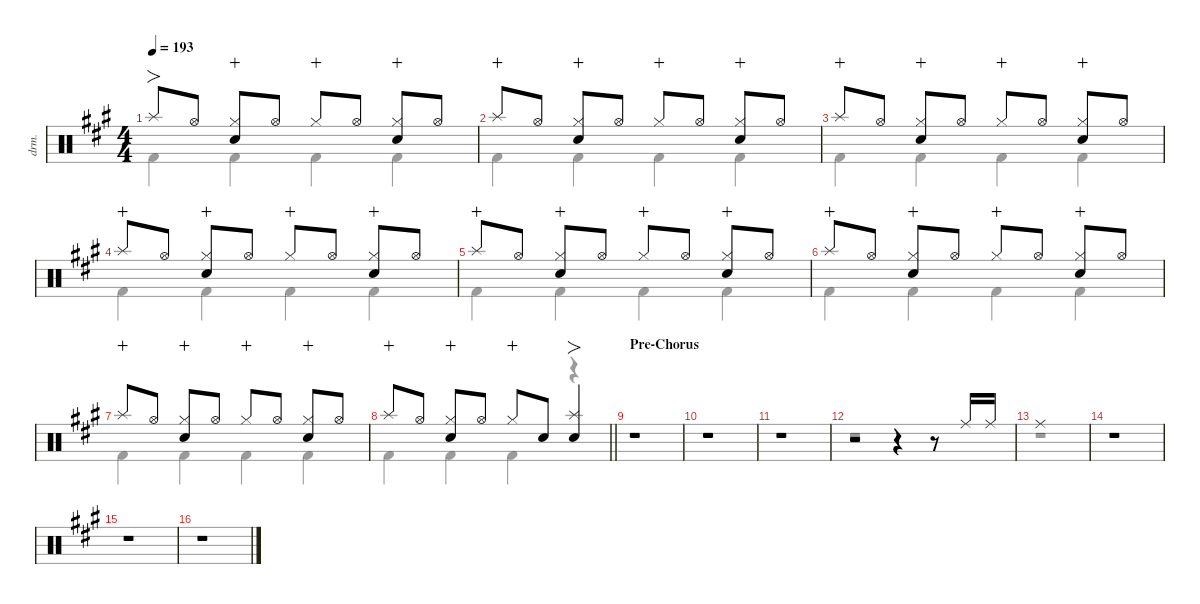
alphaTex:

\defaultSystemsLayout 4
\hideDynamics
\bracketExtendMode nobrackets
\otherSystemsTrackNameOrientation horizontal
\track ("伊地知虹夏" "drm.") {instrument percussion}
\staff {score}
\articulation defaults
\voice
\ts (4 4)
\tempo 193
\clef neutral
\ks a "Splash (hit)"{acc forcenatural}.8{fo dy mf beam Up} "Hi-Hat (open)"{acc forcenatural}.8{beam Up}
("Hi-Hat (closed)"{acc forcenatural} "Snare (hit) 2"{acc forcenatural}).8{wahc beam Up} "Hi-Hat (open)"{acc forcenatural}.8{beam Up} "Hi-Hat (closed)"{acc forcenatural}.8{wahc beam Up} "Hi-Hat (open)"{acc forcenatural}.8{beam Up} ("Hi-Hat (closed)"{acc forcenatural} "Snare (hit) 2"{acc forcenatural}).8{wahc beam Up} "Hi-Hat (open)"{acc forcenatural}.8{beam Up} |
"Splash (hit)"{acc forcenatural}.8{wahc beam Up} "Hi-Hat (open)"{acc forcenatural}.8{beam Up} ("Hi-Hat (closed)"{acc forcenatural} "Snare (hit) 2"{acc forcenatural}).8{wahc beam Up} "Hi-Hat (open)"{acc forcenatural}.8{beam Up} "Hi-Hat (closed)"{acc forcenatural}.8{wahc beam Up} "Hi-Hat (open)"{acc forcenatural}.8{beam Up} ("Hi-Hat (closed)"{acc forcenatural} "Snare (hit) 2"{acc forcenatural}).8{wahc beam Up} "Hi-Hat (open)"{acc forcenatural}.8{beam Up} |
"Splash (hit)"{acc forcenatural}.8{wahc beam Up} "Hi-Hat (open)"{acc forcenatural}.8{beam Up} ("Hi-Hat (closed)"{acc forcenatural} "Snare (hit) 2"{acc forcenatural}).8{wahc beam Up} "Hi-Hat (open)"{acc forcenatural}.8{beam Up} "Hi-Hat (closed)"{acc forcenatural}.8{wahc beam Up} "Hi-Hat (open)"{acc forcenatural}.8{beam Up} ("Hi-Hat (closed)"{acc forcenatural} "Snare (hit) 2"{acc forcenatural}).8{wahc beam Up} "Hi-Hat (open)"{acc forcenatural}.8{beam Up} |
"Splash (hit)"{acc forcenatural}.8{wahc beam Up} "Hi-Hat (open)"{acc forcenatural}.8{beam Up} ("Hi-Hat (closed)"{acc forcenatural} "Snare (hit) 2"{acc forcenatural}).8{wahc beam Up} "Hi-Hat (open)"{acc forcenatural}.8{beam Up} "Hi-Hat (closed)"{acc forcenatural}.8{wahc beam Up} "Hi-Hat (open)"{acc forcenatural}.8{beam Up} ("Hi-Hat (closed)"{acc forcenatural} "Snare (hit) 2"{acc forcenatural}).8{wahc beam Up} "Hi-Hat (open)"{acc forcenatural}.8{beam Up} |
"Splash (hit)"{acc forcenatural}.8{wahc beam Up} "Hi-Hat (open)"{acc forcenatural}.8{beam Up} ("Hi-Hat (closed)"{acc forcenatural} "Snare (hit) 2"{acc forcenatural}).8{wahc beam Up} "Hi-Hat (open)"{acc forcenatural}.8{beam Up} "Hi-Hat (closed)"{acc forcenatural}.8{wahc beam Up} "Hi-Hat (open)"{acc forcenatural}.8{beam Up} ("Hi-Hat (closed)"{acc forcenatural} "Snare (hit) 2"{acc forcenatural}).8{wahc beam Up} "Hi-Hat (open)"{acc forcenatural}.8{beam Up} |
"Splash (hit)"{acc forcenatural}.8{wahc beam Up} "Hi-Hat (open)"{acc forcenatural}.8{beam Up} ("Hi-Hat (closed)"{acc forcenatural} "Snare (hit) 2"{acc forcenatural}).8{wahc beam Up} "Hi-Hat (open)"{acc forcenatural}.8{beam Up} "Hi-Hat (closed)"{acc forcenatural}.8{wahc beam Up} "Hi-Hat (open)"{acc forcenatural}.8{beam Up} ("Hi-Hat (closed)"{acc forcenatural} "Snare (hit) 2"{acc forcenatural}).8{wahc beam Up} "Hi-Hat (open)"{acc forcenatural}.8{beam Up} |
"Splash (hit)"{acc forcenatural}.8{wahc beam Up} "Hi-Hat (open)"{acc forcenatural}.8{beam Up} ("Hi-Hat (closed)"{acc forcenatural} "Snare (hit) 2"{acc forcenatural}).8{wahc beam Up} "Hi-Hat (open)"{acc forcenatural}.8{beam Up} "Hi-Hat (closed)"{acc forcenatural}.8{wahc beam Up} "Hi-Hat (open)"{acc forcenatural}.8{beam Up} ("Hi-Hat (closed)"{acc forcenatural} "Snare (hit) 2"{acc forcenatural}).8{wahc beam Up} "Hi-Hat (open)"{acc forcenatural}.8{beam Up} |
\barLineRight lightlight "Splash (hit)"{acc forcenatural}.8{wahc beam Up} "Hi-Hat (open)"{acc forcenatural}.8{beam Up}
("Hi-Hat (closed)"{acc forcenatural} "Snare (hit) 2"{acc forcenatural}).8{wahc beam Up} "Hi-Hat (open)"{acc forcenatural}.8{beam Up} "Hi-Hat (closed)"{acc forcenatural}.8{wahc beam Up} "Snare (hit) 2"{acc forcenatural}.8{beam Up} ("Splash (hit)"{acc forcenatural} "Snare (hit) 2"{acc forcenatural}).4{fo beam Up} |
\section ("" "Pre-Chorus")
r.1{beam Up} |
r.1{beam Up} |
r.1{beam Up} |
r.2{beam Up} r.4{beam Up} r.8{beam Up} "Ride (middle)"{acc forcenatural}.16{beam Up} "Ride (middle)"{acc forcenatural}.16{beam Up} |
"Ride (middle)"{acc forcenatural}.1{beam Up} |
r.1{beam Up} |
r.1{beam Up} |
r.1{beam Up}
\voice
\clef neutral
\ottava regular
\simile none
\ks a "Kick (hit) 2"{acc forcenatural}.4{dy mf beam Down} "Kick (hit) 2"{acc forcenatural}.4{beam Down} "Kick (hit) 2"{acc forcenatural}.4{beam Down} "Kick (hit) 2"{acc forcenatural}.4{beam Down}
|
"Kick (hit) 2"{acc forcenatural}.4{beam Down} "Kick (hit) 2"{acc forcenatural}.4{beam Down} "Kick (hit) 2"{acc forcenatural}.4{beam Down} "Kick (hit) 2"{acc forcenatural}.4{beam Down} |
"Kick (hit) 2"{acc forcenatural}.4{beam Down} "Kick (hit) 2"{acc forcenatural}.4{beam Down} "Kick (hit) 2"{acc forcenatural}.4{beam Down} "Kick (hit) 2"{acc forcenatural}.4{beam Down} |
"Kick (hit) 2"{acc forcenatural}.4{beam Down} "Kick (hit) 2"{acc forcenatural}.4{beam Down} "Kick (hit) 2"{acc forcenatural}.4{beam Down} "Kick (hit) 2"{acc forcenatural}.4{beam Down} |
"Kick (hit) 2"{acc forcenatural}.4{beam Down} "Kick (hit) 2"{acc forcenatural}.4{beam Down} "Kick (hit) 2"{acc forcenatural}.4{beam Down} "Kick (hit) 2"{acc forcenatural}.4{beam Down} |
"Kick (hit) 2"{acc forcenatural}.4{beam Down} "Kick (hit) 2"{acc forcenatural}.4{beam Down} "Kick (hit) 2"{acc forcenatural}.4{beam Down} "Kick (hit) 2"{acc forcenatural}.4{beam Down} |
"Kick (hit) 2"{acc forcenatural}.4{beam Down} "Kick (hit) 2"{acc forcenatural}.4{beam Down} "Kick (hit) 2"{acc forcenatural}.4{beam Down} "Kick (hit) 2"{acc forcenatural}.4{beam Down} |
\barLineRight lightlight "Kick (hit) 2"{acc forcenatural}.4{beam Down} "Kick (hit) 2"{acc forcenatural}.4{beam Down} "Kick (hit) 2"{acc forcenatural}.4{beam Down}
r.4{beam Down} |
r.1{beam Down} |
r.1{beam Down} |
r.1{beam Down} |
r.1{beam Down} |
r.1{beam Down} |
r.1{beam Down} |
r.1{beam Down} |
r.1{beam Down}
